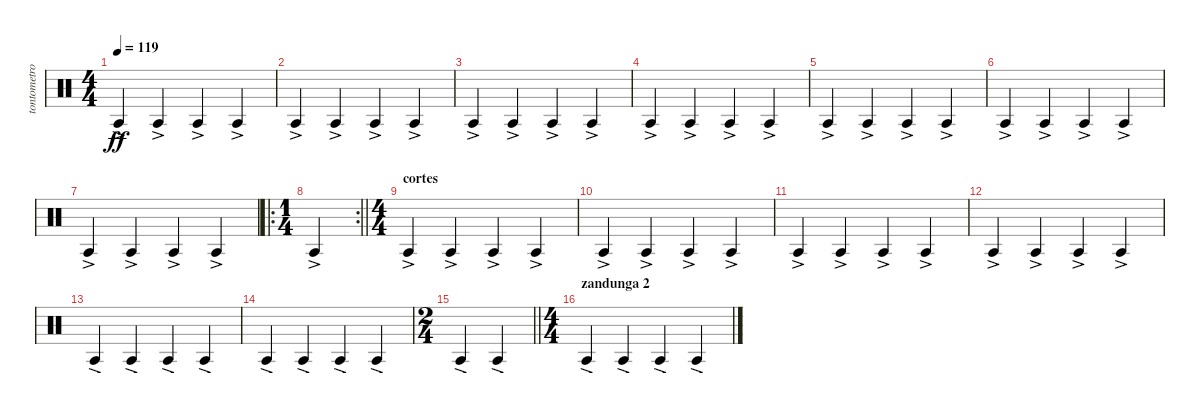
\track ("tontometro" "tontometro") {mute instrument percussion}
\staff {score}
\articulation defaults
\ts (4 4)
\tempo 119
\clef neutral
\ks c "Agogo tow (hit)"{ac}.4{dy ff} "Agogo tow (hit)"{ac}.4 "Agogo tow (hit)"{ac}.4 "Agogo tow (hit)"{ac}.4
|
"Agogo tow (hit)"{ac}.4 "Agogo tow (hit)"{ac}.4 "Agogo tow (hit)"{ac}.4 "Agogo tow (hit)"{ac}.4 |
"Agogo tow (hit)"{ac}.4 "Agogo tow (hit)"{ac}.4 "Agogo tow (hit)"{ac}.4 "Agogo tow (hit)"{ac}.4 |
"Agogo tow (hit)"{ac}.4 "Agogo tow (hit)"{ac}.4 "Agogo tow (hit)"{ac}.4 "Agogo tow (hit)"{ac}.4 |
"Agogo tow (hit)"{ac}.4 "Agogo tow (hit)"{ac}.4 "Agogo tow (hit)"{ac}.4 "Agogo tow (hit)"{ac}.4 |
"Agogo tow (hit)"{ac}.4 "Agogo tow (hit)"{ac}.4 "Agogo tow (hit)"{ac}.4 "Agogo tow (hit)"{ac}.4 |
"Agogo tow (hit)"{ac}.4 "Agogo tow (hit)"{ac}.4 "Agogo tow (hit)"{ac}.4 "Agogo tow (hit)"{ac}.4 |
\ro
\rc 2
\ts (1 4)
\barLineRight lightlight "Agogo tow (hit)"{ac}.4
|
\ts (4 4)
\section ("" "cortes")
"Agogo tow (hit)"{ac}.4 "Agogo tow (hit)"{ac}.4 "Agogo tow (hit)"{ac}.4 "Agogo tow (hit)"{ac}.4 |
"Agogo tow (hit)"{ac}.4 "Agogo tow (hit)"{ac}.4 "Agogo tow (hit)"{ac}.4 "Agogo tow (hit)"{ac}.4 |
"Agogo tow (hit)"{ac}.4 "Agogo tow (hit)"{ac}.4 "Agogo tow (hit)"{ac}.4 "Agogo tow (hit)"{ac}.4 |
"Agogo tow (hit)"{ac}.4 "Agogo tow (hit)"{ac}.4 "Agogo tow (hit)"{ac}.4 "Agogo tow (hit)"{ac}.4 |
"Agogo tow (hit)"{ac}.4 "Agogo tow (hit)"{ac}.4 "Agogo tow (hit)"{ac}.4 "Agogo tow (hit)"{ac}.4 |
"Agogo tow (hit)"{ac}.4 "Agogo tow (hit)"{ac}.4 "Agogo tow (hit)"{ac}.4 "Agogo tow (hit)"{ac}.4 |
\ts (2 4)
\barLineRight lightlight "Agogo tow (hit)"{ac}.4 "Agogo tow (hit)"{ac}.4
|
\ts (4 4)
\section ("" "zandunga 2")
"Agogo tow (hit)"{ac}.4 "Agogo tow (hit)"{ac}.4 "Agogo tow (hit)"{ac}.4 "Agogo tow (hit)"{ac}.4
